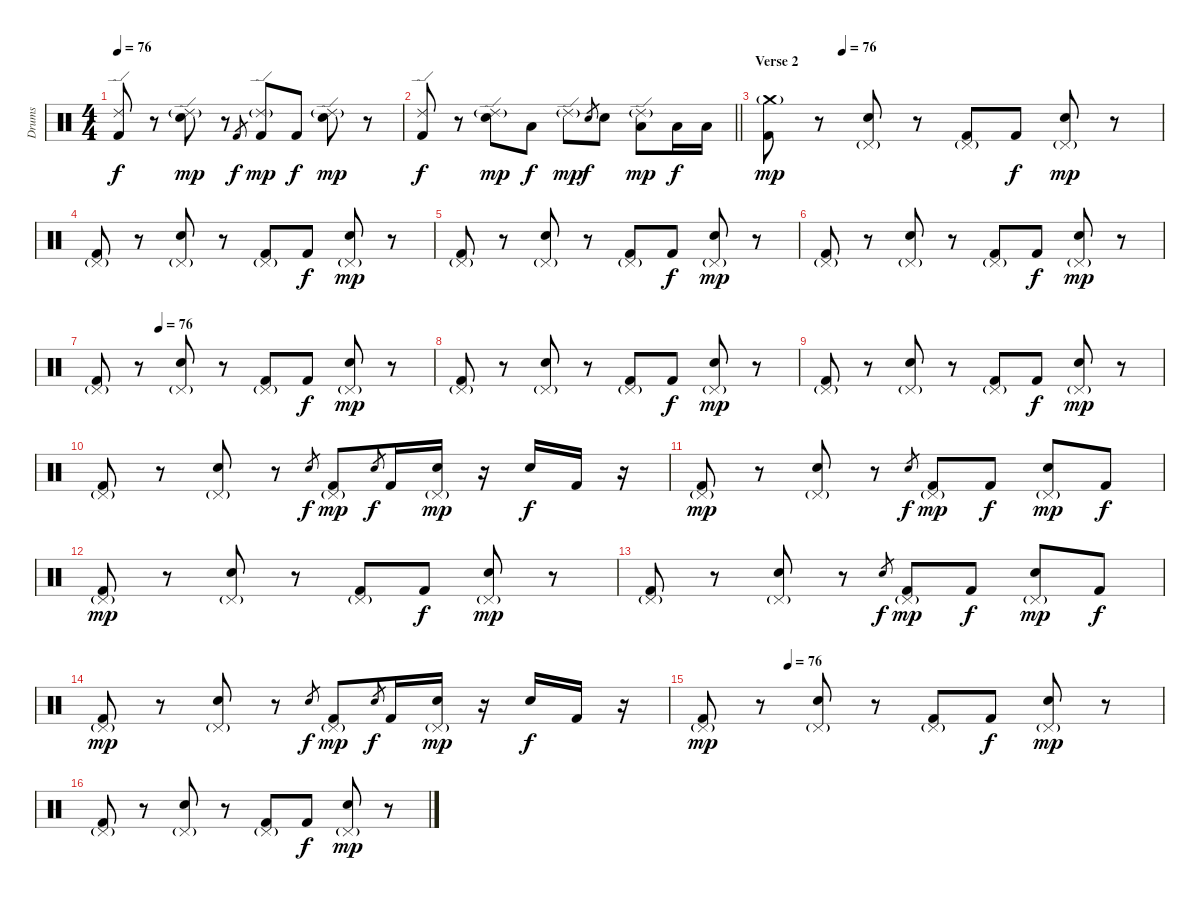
\track ("Drums" "Drums") {instrument percussion}
\staff {score}
\articulation defaults
\ts (4 4)
\tempo 76
\clef neutral
\ks c
("Ride (edge) 2" "Kick (hit) 2").8{dy f} r.8 ("Ride (edge) 2"{g} "Snare (hit) 2").8{dy mp} r.8 "Kick (hit) 2".8{gr dy f} ("Ride (edge) 2"{g} "Kick (hit) 2").8{dy mp} "Kick (hit) 2".8{dy f} ("Ride (edge) 2"{g} "Snare (hit) 2").8{dy mp} r.8 |
\barLineRight lightlight
("Ride (edge) 2" "Kick (hit) 2").8{dy f} r.8 ("Ride (edge) 2"{g} "Snare (hit) 2").8{dy mp} "Low Tom (hit)".8{dy f} "Ride (edge) 2"{g}.8{dy mp} "Snare (hit) 2".8{gr dy f} "Snare (hit) 2".8 ("Ride (edge) 2"{g} "Low Tom (hit)").8{dy mp} "Low Floor Tom (hit)".16{dy f} "Low Floor Tom (hit)".16 |
\section ("" "Verse 2")
\tempo (76 0.1875)
("Crash medium (hit)"{g} "Kick (hit) 2").8{dy mp} r.8 ("Pedal Hi-Hat (hit)"{g} "Snare (hit) 2").8 r.8 ("Pedal Hi-Hat (hit)"{g} "Kick (hit) 2").8 "Kick (hit) 2".8{dy f} ("Pedal Hi-Hat (hit)"{g} "Snare (hit) 2").8{dy mp} r.8 |
("Pedal Hi-Hat (hit)"{g} "Kick (hit) 2").8 r.8 ("Pedal Hi-Hat (hit)"{g} "Snare (hit) 2").8 r.8 ("Pedal Hi-Hat (hit)"{g} "Kick (hit) 2").8 "Kick (hit) 2".8{dy f} ("Pedal Hi-Hat (hit)"{g} "Snare (hit) 2").8{dy mp} r.8 |
("Pedal Hi-Hat (hit)"{g} "Kick (hit) 2").8 r.8 ("Pedal Hi-Hat (hit)"{g} "Snare (hit) 2").8 r.8 ("Pedal Hi-Hat (hit)"{g} "Kick (hit) 2").8 "Kick (hit) 2".8{dy f} ("Pedal Hi-Hat (hit)"{g} "Snare (hit) 2").8{dy mp} r.8 |
("Pedal Hi-Hat (hit)"{g} "Kick (hit) 2").8 r.8 ("Pedal Hi-Hat (hit)"{g} "Snare (hit) 2").8 r.8 ("Pedal Hi-Hat (hit)"{g} "Kick (hit) 2").8 "Kick (hit) 2".8{dy f} ("Pedal Hi-Hat (hit)"{g} "Snare (hit) 2").8{dy mp} r.8 |
\tempo (76 0.1875)
("Pedal Hi-Hat (hit)"{g} "Kick (hit) 2").8 r.8 ("Pedal Hi-Hat (hit)"{g} "Snare (hit) 2").8 r.8 ("Pedal Hi-Hat (hit)"{g} "Kick (hit) 2").8 "Kick (hit) 2".8{dy f} ("Pedal Hi-Hat (hit)"{g} "Snare (hit) 2").8{dy mp} r.8 |
("Pedal Hi-Hat (hit)"{g} "Kick (hit) 2").8 r.8 ("Pedal Hi-Hat (hit)"{g} "Snare (hit) 2").8 r.8 ("Pedal Hi-Hat (hit)"{g} "Kick (hit) 2").8 "Kick (hit) 2".8{dy f} ("Pedal Hi-Hat (hit)"{g} "Snare (hit) 2").8{dy mp} r.8 |
("Pedal Hi-Hat (hit)"{g} "Kick (hit) 2").8 r.8 ("Pedal Hi-Hat (hit)"{g} "Snare (hit) 2").8 r.8 ("Pedal Hi-Hat (hit)"{g} "Kick (hit) 2").8 "Kick (hit) 2".8{dy f} ("Pedal Hi-Hat (hit)"{g} "Snare (hit) 2").8{dy mp} r.8 |
("Pedal Hi-Hat (hit)"{g} "Kick (hit) 2").8 r.8 ("Pedal Hi-Hat (hit)"{g} "Snare (hit) 2").8 r.8 "Snare (hit) 2".8{gr dy f} ("Pedal Hi-Hat (hit)"{g} "Kick (hit) 2").8{dy mp} "Snare (hit) 2".8{gr dy f} "Kick (hit) 2".16 ("Pedal Hi-Hat (hit)"{g} "Snare (hit) 2").16{dy mp} r.16 "Snare (hit) 2".16{dy f} "Kick (hit) 2".16 r.16 |
("Pedal Hi-Hat (hit)"{g} "Kick (hit) 2").8{dy mp} r.8 ("Pedal Hi-Hat (hit)"{g} "Snare (hit) 2").8 r.8 "Snare (hit) 2".8{gr dy f} ("Pedal Hi-Hat (hit)"{g} "Kick (hit) 2").8{dy mp} "Kick (hit) 2".8{dy f} ("Pedal Hi-Hat (hit)"{g} "Snare (hit) 2").8{dy mp} "Kick (hit) 2".8{dy f} |
("Pedal Hi-Hat (hit)"{g} "Kick (hit) 2").8{dy mp} r.8 ("Pedal Hi-Hat (hit)"{g} "Snare (hit) 2").8 r.8 ("Pedal Hi-Hat (hit)"{g} "Kick (hit) 2").8 "Kick (hit) 2".8{dy f} ("Pedal Hi-Hat (hit)"{g} "Snare (hit) 2").8{dy mp} r.8 |
("Pedal Hi-Hat (hit)"{g} "Kick (hit) 2").8 r.8 ("Pedal Hi-Hat (hit)"{g} "Snare (hit) 2").8 r.8 "Snare (hit) 2".8{gr dy f} ("Pedal Hi-Hat (hit)"{g} "Kick (hit) 2").8{dy mp} "Kick (hit) 2".8{dy f} ("Pedal Hi-Hat (hit)"{g} "Snare (hit) 2").8{dy mp} "Kick (hit) 2".8{dy f} |
("Pedal Hi-Hat (hit)"{g} "Kick (hit) 2").8{dy mp} r.8 ("Pedal Hi-Hat (hit)"{g} "Snare (hit) 2").8 r.8 "Snare (hit) 2".8{gr dy f} ("Pedal Hi-Hat (hit)"{g} "Kick (hit) 2").8{dy mp} "Snare (hit) 2".8{gr dy f} "Kick (hit) 2".16 ("Pedal Hi-Hat (hit)"{g} "Snare (hit) 2").16{dy mp} r.16 "Snare (hit) 2".16{dy f} "Kick (hit) 2".16 r.16 |
\tempo (76 0.1875)
("Pedal Hi-Hat (hit)"{g} "Kick (hit) 2").8{dy mp} r.8 ("Pedal Hi-Hat (hit)"{g} "Snare (hit) 2").8 r.8 ("Pedal Hi-Hat (hit)"{g} "Kick (hit) 2").8 "Kick (hit) 2".8{dy f} ("Pedal Hi-Hat (hit)"{g} "Snare (hit) 2").8{dy mp} r.8 |
("Pedal Hi-Hat (hit)"{g} "Kick (hit) 2").8 r.8 ("Pedal Hi-Hat (hit)"{g} "Snare (hit) 2").8 r.8 ("Pedal Hi-Hat (hit)"{g} "Kick (hit) 2").8 "Kick (hit) 2".8{dy f} ("Pedal Hi-Hat (hit)"{g} "Snare (hit) 2").8{dy mp} r.8
